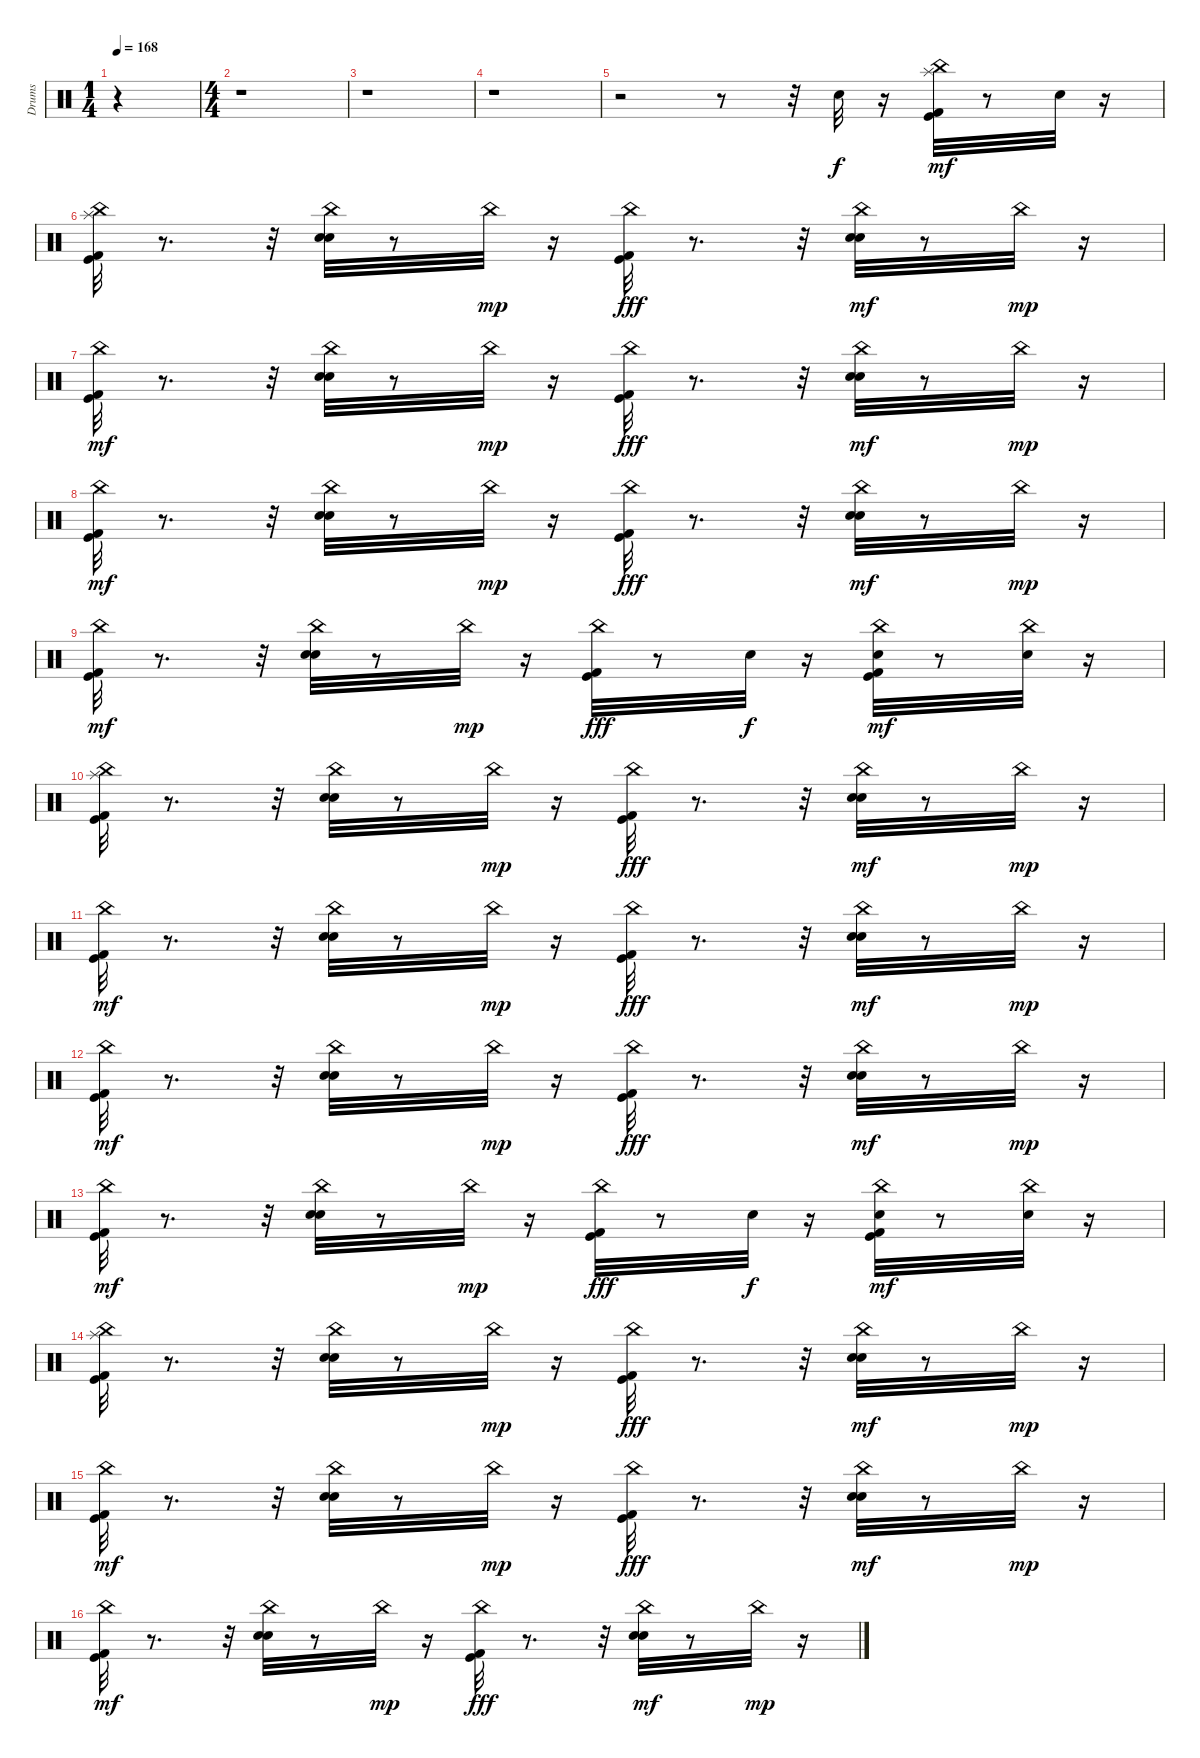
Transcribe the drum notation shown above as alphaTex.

\track ("Drums" "Drums") {instrument percussion}
\staff {score}
\articulation defaults
\ts (1 4)
\tempo 168
\clef neutral
\ks c
r.4{dy f} |
\ts (4 4)
r.1 |
r.1 |
r.1 |
r.2 r.8 r.32 "Snare (hit) 2".32 r.16 ("China (hit)" "Kick (hit) 2" "Kick (hit)" "Splash (hit)").32{dy mf} r.8 "Snare (hit) 2".32 r.16 |
("Kick (hit) 2" "Kick (hit)" "Splash (hit)" "China (hit)").32 r.8{d} r.32 ("Snare (hit) 2" "China (hit)" "Hand Clap (hit)").32 r.8 "China (hit)".32{dy mp} r.16 ("China (hit)" "Kick (hit) 2" "Kick (hit)").32{dy fff} r.8{d} r.32 ("Snare (hit) 2" "China (hit)" "Hand Clap (hit)").32{dy mf} r.8 "China (hit)".32{dy mp} r.16 |
("Kick (hit) 2" "Kick (hit)" "China (hit)").32{dy mf} r.8{d} r.32 ("Snare (hit) 2" "China (hit)" "Hand Clap (hit)").32 r.8 "China (hit)".32{dy mp} r.16 ("China (hit)" "Kick (hit) 2" "Kick (hit)").32{dy fff} r.8{d} r.32 ("Snare (hit) 2" "China (hit)" "Hand Clap (hit)").32{dy mf} r.8 "China (hit)".32{dy mp} r.16 |
("Kick (hit) 2" "Kick (hit)" "China (hit)").32{dy mf} r.8{d} r.32 ("Snare (hit) 2" "China (hit)" "Hand Clap (hit)").32 r.8 "China (hit)".32{dy mp} r.16 ("China (hit)" "Kick (hit) 2" "Kick (hit)").32{dy fff} r.8{d} r.32 ("Snare (hit) 2" "China (hit)" "Hand Clap (hit)").32{dy mf} r.8 "China (hit)".32{dy mp} r.16 |
("Kick (hit) 2" "Kick (hit)" "China (hit)").32{dy mf} r.8{d} r.32 ("Snare (hit) 2" "China (hit)" "Hand Clap (hit)").32 r.8 "China (hit)".32{dy mp} r.16 ("China (hit)" "Kick (hit) 2" "Kick (hit)").32{dy fff} r.8 "Snare (hit) 2".32{dy f} r.16 ("China (hit)" "Kick (hit) 2" "Kick (hit)" "Hand Clap (hit)").32{dy mf} r.8 ("China (hit)" "Snare (hit) 2").32 r.16 |
("Kick (hit) 2" "Kick (hit)" "Splash (hit)" "China (hit)").32 r.8{d} r.32 ("Snare (hit) 2" "China (hit)" "Hand Clap (hit)").32 r.8 "China (hit)".32{dy mp} r.16 ("China (hit)" "Kick (hit) 2" "Kick (hit)").32{dy fff} r.8{d} r.32 ("Snare (hit) 2" "China (hit)" "Hand Clap (hit)").32{dy mf} r.8 "China (hit)".32{dy mp} r.16 |
("Kick (hit) 2" "Kick (hit)" "China (hit)").32{dy mf} r.8{d} r.32 ("Snare (hit) 2" "China (hit)" "Hand Clap (hit)").32 r.8 "China (hit)".32{dy mp} r.16 ("China (hit)" "Kick (hit) 2" "Kick (hit)").32{dy fff} r.8{d} r.32 ("Snare (hit) 2" "China (hit)" "Hand Clap (hit)").32{dy mf} r.8 "China (hit)".32{dy mp} r.16 |
("Kick (hit) 2" "Kick (hit)" "China (hit)").32{dy mf} r.8{d} r.32 ("Snare (hit) 2" "China (hit)" "Hand Clap (hit)").32 r.8 "China (hit)".32{dy mp} r.16 ("China (hit)" "Kick (hit) 2" "Kick (hit)").32{dy fff} r.8{d} r.32 ("Snare (hit) 2" "China (hit)" "Hand Clap (hit)").32{dy mf} r.8 "China (hit)".32{dy mp} r.16 |
("Kick (hit) 2" "Kick (hit)" "China (hit)").32{dy mf} r.8{d} r.32 ("Snare (hit) 2" "China (hit)" "Hand Clap (hit)").32 r.8 "China (hit)".32{dy mp} r.16 ("China (hit)" "Kick (hit) 2" "Kick (hit)").32{dy fff} r.8 "Snare (hit) 2".32{dy f} r.16 ("China (hit)" "Kick (hit) 2" "Kick (hit)" "Hand Clap (hit)").32{dy mf} r.8 ("China (hit)" "Snare (hit) 2").32 r.16 |
("Kick (hit) 2" "Kick (hit)" "Splash (hit)" "China (hit)").32 r.8{d} r.32 ("Snare (hit) 2" "China (hit)" "Hand Clap (hit)").32 r.8 "China (hit)".32{dy mp} r.16 ("China (hit)" "Kick (hit) 2" "Kick (hit)").32{dy fff} r.8{d} r.32 ("Snare (hit) 2" "China (hit)" "Hand Clap (hit)").32{dy mf} r.8 "China (hit)".32{dy mp} r.16 |
("Kick (hit) 2" "Kick (hit)" "China (hit)").32{dy mf} r.8{d} r.32 ("Snare (hit) 2" "China (hit)" "Hand Clap (hit)").32 r.8 "China (hit)".32{dy mp} r.16 ("China (hit)" "Kick (hit) 2" "Kick (hit)").32{dy fff} r.8{d} r.32 ("Snare (hit) 2" "China (hit)" "Hand Clap (hit)").32{dy mf} r.8 "China (hit)".32{dy mp} r.16 |
("Kick (hit) 2" "Kick (hit)" "China (hit)").32{dy mf} r.8{d} r.32 ("Snare (hit) 2" "China (hit)" "Hand Clap (hit)").32 r.8 "China (hit)".32{dy mp} r.16 ("China (hit)" "Kick (hit) 2" "Kick (hit)").32{dy fff} r.8{d} r.32 ("Snare (hit) 2" "China (hit)" "Hand Clap (hit)").32{dy mf} r.8 "China (hit)".32{dy mp} r.16
